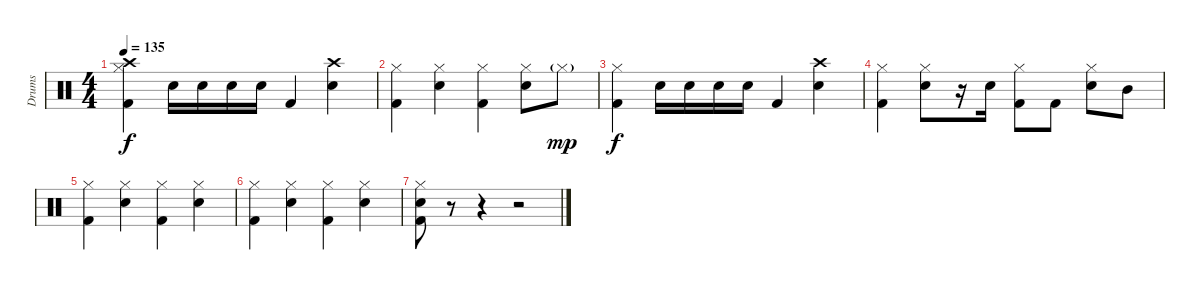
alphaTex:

\track ("Drums" "Drums") {instrument percussion}
\staff {score}
\articulation defaults
\ts (4 4)
\tempo 135
\clef neutral
\ks c
("Hi-Hat (closed)" "Crash high (hit)" "Kick (hit) 2").4{dy f} "Electric Snare (hit)".16 "Electric Snare (hit)".16 "Electric Snare (hit)".16 "Electric Snare (hit)".16 "Kick (hit) 2".4 ("Crash high (hit)" "Electric Snare (hit)").4 |
("Hi-Hat (closed)" "Kick (hit) 2").4 ("Hi-Hat (closed)" "Electric Snare (hit)").4 ("Hi-Hat (closed)" "Kick (hit) 2").4 ("Hi-Hat (closed)" "Electric Snare (hit)").8 "Hi-Hat (closed)"{g}.8{dy mp} |
("Hi-Hat (closed)" "Kick (hit) 2").4{dy f} "Electric Snare (hit)".16 "Electric Snare (hit)".16 "Electric Snare (hit)".16 "Electric Snare (hit)".16 "Kick (hit) 2".4 ("Crash high (hit)" "Electric Snare (hit)").4 |
("Hi-Hat (closed)" "Kick (hit) 2").4 ("Hi-Hat (closed)" "Electric Snare (hit)").8 r.16 "Electric Snare (hit)".16 ("Hi-Hat (closed)" "Kick (hit) 2").8 "Kick (hit) 2".8 ("Hi-Hat (closed)" "Electric Snare (hit)").8 "Mid Tom (hit)".8 |
("Hi-Hat (closed)" "Kick (hit) 2").4 ("Hi-Hat (closed)" "Electric Snare (hit)").4 ("Hi-Hat (closed)" "Kick (hit) 2").4 ("Hi-Hat (closed)" "Electric Snare (hit)").4 |
("Hi-Hat (closed)" "Kick (hit) 2").4 ("Hi-Hat (closed)" "Electric Snare (hit)").4 ("Hi-Hat (closed)" "Kick (hit) 2").4 ("Hi-Hat (closed)" "Electric Snare (hit)").4 |
("Hi-Hat (closed)" "Electric Snare (hit)" "Kick (hit) 2").8 r.8 r.4 r.2
